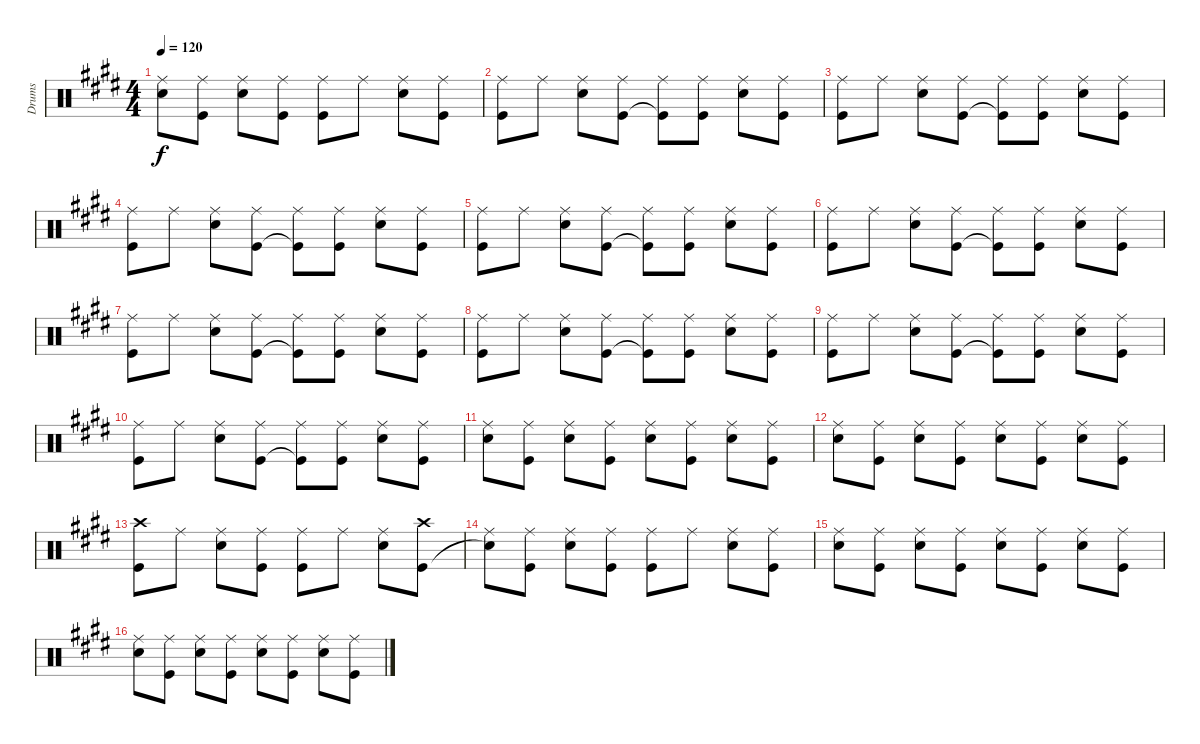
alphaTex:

\track ("Drums" "Drums") {instrument percussion}
\staff {score}
\articulation defaults
\ts (4 4)
\tempo 120
\clef neutral
\ks e
("Ride (middle)" "Snare (hit)"{t}).8{dy f} ("Ride (middle)" "Kick (hit)").8 ("Ride (middle)" "Snare (hit) 2").8 ("Ride (middle)" "Kick (hit)").8 ("Ride (middle)" "Kick (hit)").8 "Ride (middle)".8 ("Ride (middle)" "Snare (hit) 2").8 ("Ride (middle)" "Kick (hit)").8 |
("Ride (middle)" "Kick (hit)").8 "Ride (middle)".8 ("Ride (middle)" "Snare (hit) 2").8 ("Ride (middle)" "Kick (hit)").8 ("Ride (middle)" "Kick (hit)"{t}).8 ("Ride (middle)" "Kick (hit)").8 ("Ride (middle)" "Snare (hit) 2").8 ("Ride (middle)" "Kick (hit)").8 |
("Ride (middle)" "Kick (hit)").8 "Ride (middle)".8 ("Ride (middle)" "Snare (hit) 2").8 ("Ride (middle)" "Kick (hit)").8 ("Ride (middle)" "Kick (hit)"{t}).8 ("Ride (middle)" "Kick (hit)").8 ("Ride (middle)" "Snare (hit) 2").8 ("Ride (middle)" "Kick (hit)").8 |
("Ride (middle)" "Kick (hit)").8 "Ride (middle)".8 ("Ride (middle)" "Snare (hit) 2").8 ("Ride (middle)" "Kick (hit)").8 ("Ride (middle)" "Kick (hit)"{t}).8 ("Ride (middle)" "Kick (hit)").8 ("Ride (middle)" "Snare (hit) 2").8 ("Ride (middle)" "Kick (hit)").8 |
("Ride (middle)" "Kick (hit)").8 "Ride (middle)".8 ("Ride (middle)" "Snare (hit) 2").8 ("Ride (middle)" "Kick (hit)").8 ("Ride (middle)" "Kick (hit)"{t}).8 ("Ride (middle)" "Kick (hit)").8 ("Ride (middle)" "Snare (hit) 2").8 ("Ride (middle)" "Kick (hit)").8 |
("Ride (middle)" "Kick (hit)").8 "Ride (middle)".8 ("Ride (middle)" "Snare (hit) 2").8 ("Ride (middle)" "Kick (hit)").8 ("Ride (middle)" "Kick (hit)"{t}).8 ("Ride (middle)" "Kick (hit)").8 ("Ride (middle)" "Snare (hit) 2").8 ("Ride (middle)" "Kick (hit)").8 |
("Ride (middle)" "Kick (hit)").8 "Ride (middle)".8 ("Ride (middle)" "Snare (hit) 2").8 ("Ride (middle)" "Kick (hit)").8 ("Ride (middle)" "Kick (hit)"{t}).8 ("Ride (middle)" "Kick (hit)").8 ("Ride (middle)" "Snare (hit) 2").8 ("Ride (middle)" "Kick (hit)").8 |
("Ride (middle)" "Kick (hit)").8 "Ride (middle)".8 ("Ride (middle)" "Snare (hit) 2").8 ("Ride (middle)" "Kick (hit)").8 ("Ride (middle)" "Kick (hit)"{t}).8 ("Ride (middle)" "Kick (hit)").8 ("Ride (middle)" "Snare (hit) 2").8 ("Ride (middle)" "Kick (hit)").8 |
("Ride (middle)" "Kick (hit)").8 "Ride (middle)".8 ("Ride (middle)" "Snare (hit) 2").8 ("Ride (middle)" "Kick (hit)").8 ("Ride (middle)" "Kick (hit)"{t}).8 ("Ride (middle)" "Kick (hit)").8 ("Ride (middle)" "Snare (hit) 2").8 ("Ride (middle)" "Kick (hit)").8 |
("Ride (middle)" "Kick (hit)").8 "Ride (middle)".8 ("Ride (middle)" "Snare (hit) 2").8 ("Ride (middle)" "Kick (hit)").8 ("Ride (middle)" "Kick (hit)"{t}).8 ("Ride (middle)" "Kick (hit)").8 ("Ride (middle)" "Snare (hit) 2").8 ("Ride (middle)" "Kick (hit)").8 |
("Ride (middle)" "Snare (hit) 2").8 ("Ride (middle)" "Kick (hit)").8 ("Ride (middle)" "Snare (hit) 2").8 ("Ride (middle)" "Kick (hit)").8 ("Ride (middle)" "Snare (hit) 2").8 ("Ride (middle)" "Kick (hit)").8 ("Ride (middle)" "Snare (hit) 2").8 ("Ride (middle)" "Kick (hit)").8 |
("Ride (middle)" "Snare (hit) 2").8 ("Ride (middle)" "Kick (hit)").8 ("Ride (middle)" "Snare (hit) 2").8 ("Ride (middle)" "Kick (hit)").8 ("Ride (middle)" "Snare (hit) 2").8 ("Ride (middle)" "Kick (hit)").8 ("Ride (middle)" "Snare (hit) 2").8 ("Ride (middle)" "Kick (hit)").8 |
("Crash high (hit)" "Kick (hit)").8 "Ride (middle)".8 ("Ride (middle)" "Snare (hit) 2").8 ("Ride (middle)" "Kick (hit)").8 ("Ride (middle)" "Kick (hit)").8 "Ride (middle)".8 ("Ride (middle)" "Snare (hit) 2").8 ("Crash high (hit)" "Kick (hit)").8 |
("Ride (middle)" "Snare (hit)"{t}).8 ("Ride (middle)" "Kick (hit)").8 ("Ride (middle)" "Snare (hit) 2").8 ("Ride (middle)" "Kick (hit)").8 ("Ride (middle)" "Kick (hit)").8 "Ride (middle)".8 ("Ride (middle)" "Snare (hit) 2").8 ("Ride (middle)" "Kick (hit)").8 |
("Ride (middle)" "Snare (hit) 2").8 ("Ride (middle)" "Kick (hit)").8 ("Ride (middle)" "Snare (hit) 2").8 ("Ride (middle)" "Kick (hit)").8 ("Ride (middle)" "Snare (hit) 2").8 ("Ride (middle)" "Kick (hit)").8 ("Ride (middle)" "Snare (hit) 2").8 ("Ride (middle)" "Kick (hit)").8 |
("Ride (middle)" "Snare (hit) 2").8 ("Ride (middle)" "Kick (hit)").8 ("Ride (middle)" "Snare (hit) 2").8 ("Ride (middle)" "Kick (hit)").8 ("Ride (middle)" "Snare (hit) 2").8 ("Ride (middle)" "Kick (hit)").8 ("Ride (middle)" "Snare (hit) 2").8 ("Ride (middle)" "Kick (hit)").8
